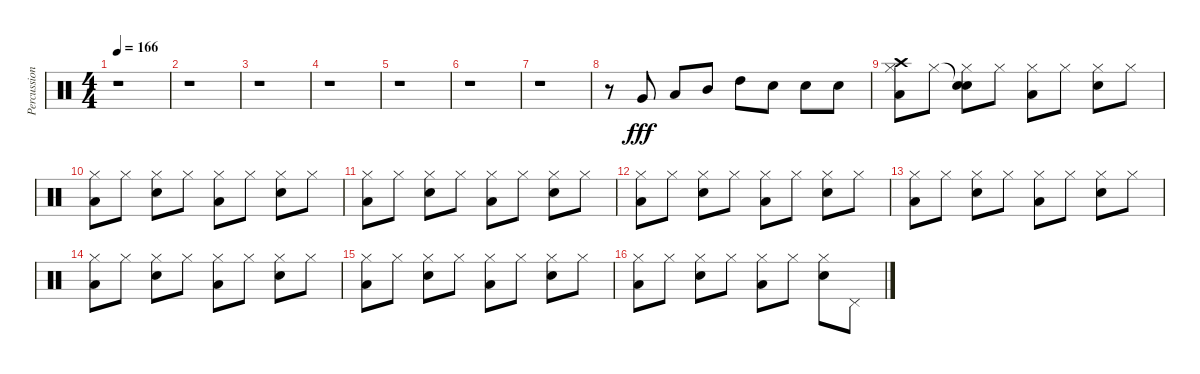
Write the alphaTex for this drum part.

\track ("Percussions" "Percussion") {instrument percussion}
\staff {score}
\articulation defaults
\ts (4 4)
\tempo 166
\clef neutral
\ks c
r.1{dy fff} |
r.1 |
r.1 |
r.1 |
r.1 |
r.1 |
r.1 |
r.8 "Very Low Tom (hit)".8 "Low Tom (hit)".8 "Mid Tom (hit)".8 "High Tom (hit)".8 "Snare (hit) 2".8 "Snare (hit) 2".8 "Snare (hit) 2".8 |
("Crash high (hit)" "Low Tom (hit)" "Hi-Hat (closed)").8 "Hi-Hat (closed)".8 ("Snare (hit)"{t} "Snare (hit) 2" "Hi-Hat (closed)").8 "Hi-Hat (closed)".8 ("Low Tom (hit)" "Hi-Hat (closed)").8 "Hi-Hat (closed)".8 ("Snare (hit) 2" "Hi-Hat (closed)").8 "Hi-Hat (closed)".8 |
("Low Tom (hit)" "Hi-Hat (closed)").8 "Hi-Hat (closed)".8 ("Snare (hit) 2" "Hi-Hat (closed)").8 "Hi-Hat (closed)".8 ("Low Tom (hit)" "Hi-Hat (closed)").8 "Hi-Hat (closed)".8 ("Snare (hit) 2" "Hi-Hat (closed)").8 "Hi-Hat (closed)".8 |
("Low Tom (hit)" "Hi-Hat (closed)").8 "Hi-Hat (closed)".8 ("Snare (hit) 2" "Hi-Hat (closed)").8 "Hi-Hat (closed)".8 ("Low Tom (hit)" "Hi-Hat (closed)").8 "Hi-Hat (closed)".8 ("Snare (hit) 2" "Hi-Hat (closed)").8 "Hi-Hat (closed)".8 |
("Low Tom (hit)" "Hi-Hat (closed)").8 "Hi-Hat (closed)".8 ("Snare (hit) 2" "Hi-Hat (closed)").8 "Hi-Hat (closed)".8 ("Low Tom (hit)" "Hi-Hat (closed)").8 "Hi-Hat (closed)".8 ("Snare (hit) 2" "Hi-Hat (closed)").8 "Hi-Hat (closed)".8 |
("Low Tom (hit)" "Hi-Hat (closed)").8 "Hi-Hat (closed)".8 ("Snare (hit) 2" "Hi-Hat (closed)").8 "Hi-Hat (closed)".8 ("Low Tom (hit)" "Hi-Hat (closed)").8 "Hi-Hat (closed)".8 ("Snare (hit) 2" "Hi-Hat (closed)").8 "Hi-Hat (closed)".8 |
("Low Tom (hit)" "Hi-Hat (closed)").8 "Hi-Hat (closed)".8 ("Snare (hit) 2" "Hi-Hat (closed)").8 "Hi-Hat (closed)".8 ("Low Tom (hit)" "Hi-Hat (closed)").8 "Hi-Hat (closed)".8 ("Snare (hit) 2" "Hi-Hat (closed)").8 "Hi-Hat (closed)".8 |
("Low Tom (hit)" "Hi-Hat (closed)").8 "Hi-Hat (closed)".8 ("Snare (hit) 2" "Hi-Hat (closed)").8 "Hi-Hat (closed)".8 ("Low Tom (hit)" "Hi-Hat (closed)").8 "Hi-Hat (closed)".8 ("Snare (hit) 2" "Hi-Hat (closed)").8 "Hi-Hat (closed)".8 |
("Low Tom (hit)" "Hi-Hat (closed)").8 "Hi-Hat (closed)".8 ("Snare (hit) 2" "Hi-Hat (closed)").8 "Hi-Hat (closed)".8 ("Low Tom (hit)" "Hi-Hat (closed)").8 "Hi-Hat (closed)".8 ("Snare (hit) 2" "Hi-Hat (closed)").8 "Pedal Hi-Hat (hit)".8
